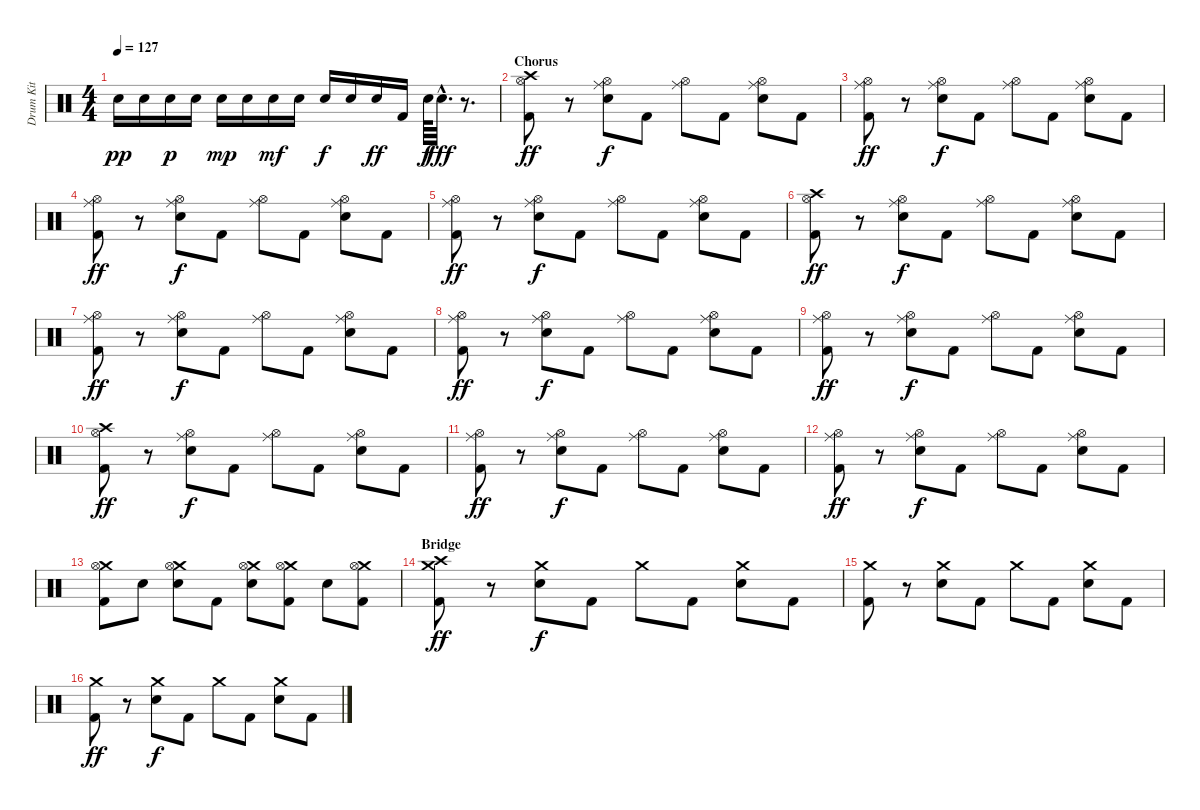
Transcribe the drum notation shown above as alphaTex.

\track ("Drum Kit" "Drum Kit") {instrument percussion}
\staff {score}
\articulation defaults
\ts (4 4)
\tempo 127
\clef neutral
\ks c "Electric Snare (hit)".16{dy pp} "Electric Snare (hit)".16 "Electric Snare (hit)".16{dy p} "Electric Snare (hit)".16 "Electric Snare (hit)".16{dy mp} "Electric Snare (hit)".16 "Electric Snare (hit)".16{dy mf} "Electric Snare (hit)".16 "Electric Snare (hit)".16{dy f} "Electric Snare (hit)".16 "Electric Snare (hit)".16{dy ff} "Kick (hit) 2".16 "Electric Snare (hit)".64{dy f} "Electric Snare (hit)"{hac}.32{d dy fff}
r.8{d} |
\section ("" "Chorus")
("Crash high (hit)" "Hi-Hat (open)" "Kick (hit) 2").8{dy ff} r.8 ("Ride (middle)" "Hi-Hat (open)" "Electric Snare (hit)").8{dy f} "Kick (hit) 2".8 ("Ride (middle)" "Hi-Hat (open)").8 "Kick (hit) 2".8 ("Ride (middle)" "Hi-Hat (open)" "Electric Snare (hit)").8 "Kick (hit) 2".8 |
("Ride (middle)" "Hi-Hat (open)" "Kick (hit) 2").8{dy ff} r.8 ("Ride (middle)" "Hi-Hat (open)" "Electric Snare (hit)").8{dy f} "Kick (hit) 2".8 ("Ride (middle)" "Hi-Hat (open)").8 "Kick (hit) 2".8 ("Ride (middle)" "Hi-Hat (open)" "Electric Snare (hit)").8 "Kick (hit) 2".8 |
("Ride (middle)" "Hi-Hat (open)" "Kick (hit) 2").8{dy ff} r.8 ("Ride (middle)" "Hi-Hat (open)" "Electric Snare (hit)").8{dy f} "Kick (hit) 2".8 ("Ride (middle)" "Hi-Hat (open)").8 "Kick (hit) 2".8 ("Ride (middle)" "Hi-Hat (open)" "Electric Snare (hit)").8 "Kick (hit) 2".8 |
("Ride (middle)" "Hi-Hat (open)" "Kick (hit) 2").8{dy ff} r.8 ("Ride (middle)" "Hi-Hat (open)" "Electric Snare (hit)").8{dy f} "Kick (hit) 2".8 ("Ride (middle)" "Hi-Hat (open)").8 "Kick (hit) 2".8 ("Ride (middle)" "Hi-Hat (open)" "Electric Snare (hit)").8 "Kick (hit) 2".8 |
("Crash high (hit)" "Hi-Hat (open)" "Kick (hit) 2").8{dy ff} r.8 ("Ride (middle)" "Hi-Hat (open)" "Electric Snare (hit)").8{dy f} "Kick (hit) 2".8 ("Ride (middle)" "Hi-Hat (open)").8 "Kick (hit) 2".8 ("Ride (middle)" "Hi-Hat (open)" "Electric Snare (hit)").8 "Kick (hit) 2".8 |
("Ride (middle)" "Hi-Hat (open)" "Kick (hit) 2").8{dy ff} r.8 ("Ride (middle)" "Hi-Hat (open)" "Electric Snare (hit)").8{dy f} "Kick (hit) 2".8 ("Ride (middle)" "Hi-Hat (open)").8 "Kick (hit) 2".8 ("Ride (middle)" "Hi-Hat (open)" "Electric Snare (hit)").8 "Kick (hit) 2".8 |
("Ride (middle)" "Hi-Hat (open)" "Kick (hit) 2").8{dy ff} r.8 ("Ride (middle)" "Hi-Hat (open)" "Electric Snare (hit)").8{dy f} "Kick (hit) 2".8 ("Ride (middle)" "Hi-Hat (open)").8 "Kick (hit) 2".8 ("Ride (middle)" "Hi-Hat (open)" "Electric Snare (hit)").8 "Kick (hit) 2".8 |
("Ride (middle)" "Hi-Hat (open)" "Kick (hit) 2").8{dy ff} r.8 ("Ride (middle)" "Hi-Hat (open)" "Electric Snare (hit)").8{dy f} "Kick (hit) 2".8 ("Ride (middle)" "Hi-Hat (open)").8 "Kick (hit) 2".8 ("Ride (middle)" "Hi-Hat (open)" "Electric Snare (hit)").8 "Kick (hit) 2".8 |
("Crash high (hit)" "Hi-Hat (open)" "Kick (hit) 2").8{dy ff} r.8 ("Ride (middle)" "Hi-Hat (open)" "Electric Snare (hit)").8{dy f} "Kick (hit) 2".8 ("Ride (middle)" "Hi-Hat (open)").8 "Kick (hit) 2".8 ("Ride (middle)" "Hi-Hat (open)" "Electric Snare (hit)").8 "Kick (hit) 2".8 |
("Ride (middle)" "Hi-Hat (open)" "Kick (hit) 2").8{dy ff} r.8 ("Ride (middle)" "Hi-Hat (open)" "Electric Snare (hit)").8{dy f} "Kick (hit) 2".8 ("Ride (middle)" "Hi-Hat (open)").8 "Kick (hit) 2".8 ("Ride (middle)" "Hi-Hat (open)" "Electric Snare (hit)").8 "Kick (hit) 2".8 |
("Ride (middle)" "Hi-Hat (open)" "Kick (hit) 2").8{dy ff} r.8 ("Ride (middle)" "Hi-Hat (open)" "Electric Snare (hit)").8{dy f} "Kick (hit) 2".8 ("Ride (middle)" "Hi-Hat (open)").8 "Kick (hit) 2".8 ("Ride (middle)" "Hi-Hat (open)" "Electric Snare (hit)").8 "Kick (hit) 2".8 |
("Crash medium (hit)" "Hi-Hat (open)" "Kick (hit) 2").8 "Electric Snare (hit)".8 ("Crash medium (hit)" "Hi-Hat (open)" "Electric Snare (hit)").8 "Kick (hit) 2".8 ("Crash medium (hit)" "Hi-Hat (open)" "Electric Snare (hit)").8 ("Crash medium (hit)" "Hi-Hat (open)" "Kick (hit) 2").8 "Electric Snare (hit)".8 ("Crash medium (hit)" "Hi-Hat (open)" "Kick (hit) 2").8 |
\section ("" "Bridge")
("Crash high (hit)" "Crash medium (hit)" "Kick (hit) 2").8{dy ff} r.8 ("Crash medium (hit)" "Electric Snare (hit)").8{dy f} "Kick (hit) 2".8 "Crash medium (hit)".8 "Kick (hit) 2".8 ("Crash medium (hit)" "Electric Snare (hit)").8 "Kick (hit) 2".8 |
("Crash medium (hit)" "Kick (hit) 2").8 r.8 ("Crash medium (hit)" "Electric Snare (hit)").8 "Kick (hit) 2".8 "Crash medium (hit)".8 "Kick (hit) 2".8 ("Crash medium (hit)" "Electric Snare (hit)").8 "Kick (hit) 2".8 |
("Crash medium (hit)" "Kick (hit) 2").8{dy ff} r.8 ("Crash medium (hit)" "Electric Snare (hit)").8{dy f} "Kick (hit) 2".8 "Crash medium (hit)".8 "Kick (hit) 2".8 ("Crash medium (hit)" "Electric Snare (hit)").8 "Kick (hit) 2".8
